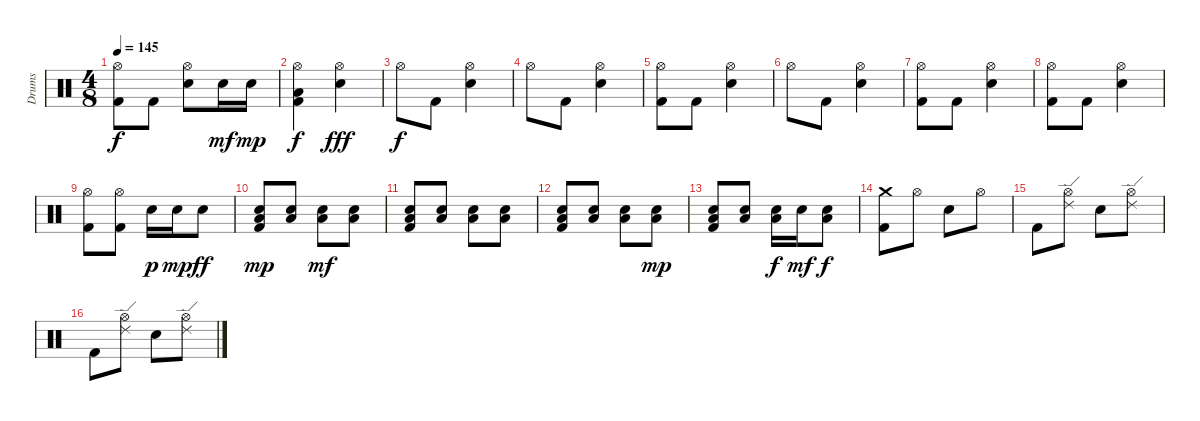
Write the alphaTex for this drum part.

\track ("Drums" "Drums") {instrument percussion}
\staff {score}
\articulation defaults
\ts (4 8)
\tempo 145
\clef neutral
\ks c
("Hi-Hat (open)" "Kick (hit) 2").8{dy f} "Kick (hit) 2".8 ("Hi-Hat (open)" "Snare (hit) 2").8 "Snare (hit) 2".16{dy mf} "Snare (hit) 2".16{dy mp} |
("Hi-Hat (open)" "Low Floor Tom (hit)" "Kick (hit) 2").4{dy f} ("Hi-Hat (open)" "Snare (hit) 2").4{dy fff} |
"Hi-Hat (open)".8{dy f} "Kick (hit) 2".8 ("Hi-Hat (open)" "Snare (hit) 2").4 |
"Hi-Hat (open)".8 "Kick (hit) 2".8 ("Hi-Hat (open)" "Snare (hit) 2").4 |
("Hi-Hat (open)" "Kick (hit) 2").8 "Kick (hit) 2".8 ("Hi-Hat (open)" "Snare (hit) 2").4 |
"Hi-Hat (open)".8 "Kick (hit) 2".8 ("Hi-Hat (open)" "Snare (hit) 2").4 |
("Hi-Hat (open)" "Kick (hit) 2").8 "Kick (hit) 2".8 ("Hi-Hat (open)" "Snare (hit) 2").4 |
("Hi-Hat (open)" "Kick (hit) 2").8 "Kick (hit) 2".8 ("Hi-Hat (open)" "Snare (hit) 2").4 |
("Hi-Hat (open)" "Kick (hit) 2").8 ("Hi-Hat (open)" "Kick (hit) 2").8 "Snare (hit) 2".16{dy p} "Snare (hit) 2".16{dy mp} "Snare (hit) 2".8{dy ff} |
("Low Floor Tom (hit)" "Snare (hit) 2" "Kick (hit) 2").8{dy mp} ("Low Floor Tom (hit)" "Snare (hit) 2").8 ("Low Floor Tom (hit)" "Snare (hit) 2").8{dy mf} ("Low Floor Tom (hit)" "Snare (hit) 2").8 |
("Low Floor Tom (hit)" "Snare (hit) 2" "Kick (hit) 2").8 ("Low Floor Tom (hit)" "Snare (hit) 2").8 ("Low Floor Tom (hit)" "Snare (hit) 2").8 ("Low Floor Tom (hit)" "Snare (hit) 2").8 |
("Low Floor Tom (hit)" "Snare (hit) 2" "Kick (hit) 2").8 ("Low Floor Tom (hit)" "Snare (hit) 2").8 ("Low Floor Tom (hit)" "Snare (hit) 2").8 ("Low Floor Tom (hit)" "Snare (hit) 2").8{dy mp} |
("Low Floor Tom (hit)" "Snare (hit) 2" "Kick (hit) 2").8 ("Low Floor Tom (hit)" "Snare (hit) 2").8 ("Low Floor Tom (hit)" "Snare (hit) 2").16{dy f} "Snare (hit) 2".16{dy mf} ("Low Floor Tom (hit)" "Snare (hit) 2").8{dy f} |
("Crash medium (hit)" "Kick (hit) 2").8 "Hi-Hat (open)".8 "Snare (hit) 2".8 "Hi-Hat (open)".8 |
"Kick (hit) 2".8 ("Ride (edge) 2" "Hi-Hat (open)").8 "Snare (hit) 2".8 ("Ride (edge) 2" "Hi-Hat (open)").8 |
"Kick (hit) 2".8 ("Ride (edge) 2" "Hi-Hat (open)").8 "Snare (hit) 2".8 ("Ride (edge) 2" "Hi-Hat (open)").8
